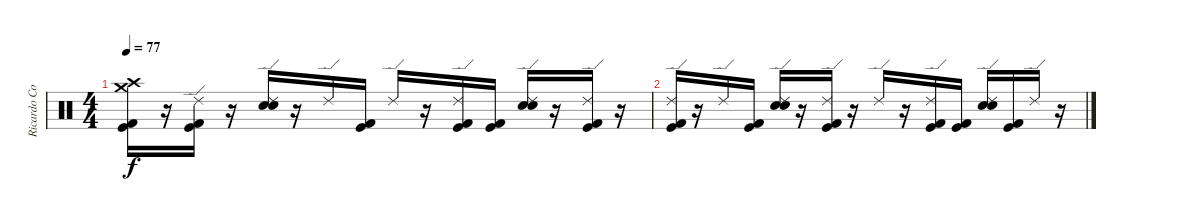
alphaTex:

\track ("Ricardo Confessori" "Ricardo Co") {instrument percussion}
\staff {score}
\articulation defaults
\ts (4 4)
\tempo 77
\clef neutral
\ks c
("Crash high (hit)" "Kick (hit) 2" "Kick (hit)" "Crash medium (hit)").16{dy f volume 3} r.16 ("Kick (hit) 2" "Kick (hit)" "Ride (edge) 2").16{volume 2} r.16 ("Snare (hit) 2" "Electric Snare (hit)" "Ride (edge) 2").16{volume 2} r.16 "Ride (edge) 2".16{volume 2} ("Kick (hit) 2" "Kick (hit)").16{volume 1} "Ride (edge) 2".16{volume 1} r.16 ("Kick (hit) 2" "Kick (hit)" "Ride (edge) 2").16{volume 0} ("Kick (hit) 2" "Kick (hit)").16{volume 0} ("Electric Snare (hit)" "Snare (hit) 2" "Ride (edge) 2").16{volume 0} r.16 ("Kick (hit) 2" "Kick (hit)" "Ride (edge) 2").16 r.16 |
("Kick (hit) 2" "Kick (hit)" "Ride (edge) 2").16 r.16 "Ride (edge) 2".16 ("Kick (hit) 2" "Kick (hit)").16 ("Electric Snare (hit)" "Snare (hit) 2" "Ride (edge) 2").16 r.16 ("Kick (hit) 2" "Kick (hit)" "Ride (edge) 2").16 r.16 "Ride (edge) 2".16 r.16 ("Kick (hit) 2" "Kick (hit)" "Ride (edge) 2").16 ("Kick (hit) 2" "Kick (hit)").16 ("Electric Snare (hit)" "Snare (hit) 2" "Ride (edge) 2").16 ("Kick (hit) 2" "Kick (hit)").16 "Ride (edge) 2".16 r.16
